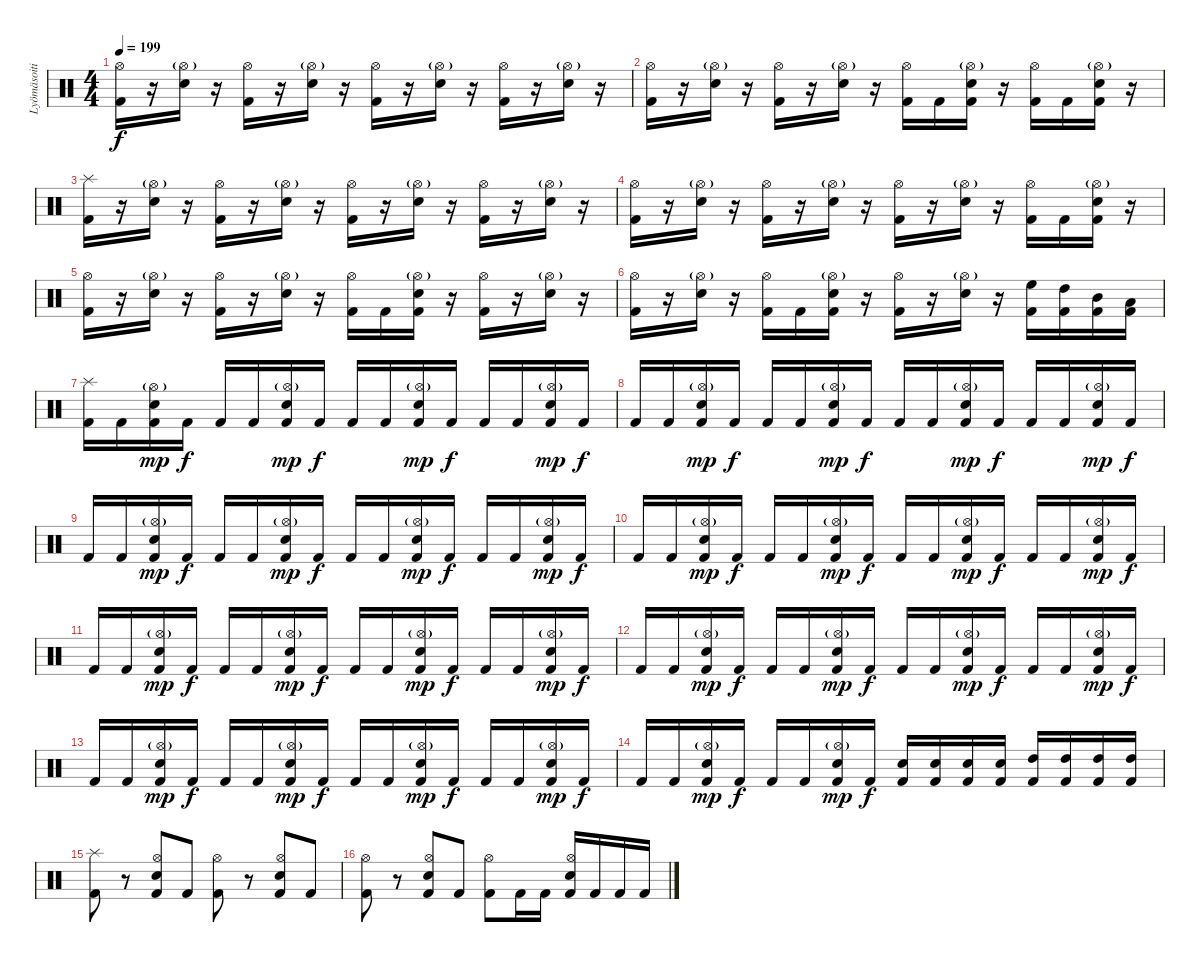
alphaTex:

\track ("Lyömäsoitin" "Lyömäsoiti") {instrument percussion}
\staff {score}
\articulation defaults
\ts (4 4)
\tempo 199
\clef neutral
\ks c
("Kick (hit) 2" "Hi-Hat (open)").16{dy f} r.16 ("Hi-Hat (open)"{g} "Snare (hit) 2").16 r.16 ("Kick (hit) 2" "Hi-Hat (open)").16 r.16 ("Hi-Hat (open)"{g} "Snare (hit) 2").16 r.16 ("Kick (hit) 2" "Hi-Hat (open)").16 r.16 ("Hi-Hat (open)"{g} "Snare (hit) 2").16 r.16 ("Kick (hit) 2" "Hi-Hat (open)").16 r.16 ("Hi-Hat (open)"{g} "Snare (hit) 2").16 r.16 |
("Kick (hit) 2" "Hi-Hat (open)").16 r.16 ("Hi-Hat (open)"{g} "Snare (hit) 2").16 r.16 ("Kick (hit) 2" "Hi-Hat (open)").16 r.16 ("Hi-Hat (open)"{g} "Snare (hit) 2").16 r.16 ("Kick (hit) 2" "Hi-Hat (open)").16 "Kick (hit) 2".16 ("Kick (hit) 2" "Hi-Hat (open)"{g} "Snare (hit) 2").16 r.16 ("Kick (hit) 2" "Hi-Hat (open)").16 "Kick (hit) 2".16 ("Kick (hit) 2" "Hi-Hat (open)"{g} "Snare (hit) 2").16 r.16 |
("Kick (hit) 2" "Splash (hit)").16 r.16 ("Hi-Hat (open)"{g} "Snare (hit) 2").16 r.16 ("Kick (hit) 2" "Hi-Hat (open)").16 r.16 ("Hi-Hat (open)"{g} "Snare (hit) 2").16 r.16 ("Kick (hit) 2" "Hi-Hat (open)").16 r.16 ("Hi-Hat (open)"{g} "Snare (hit) 2").16 r.16 ("Kick (hit) 2" "Hi-Hat (open)").16 r.16 ("Hi-Hat (open)"{g} "Snare (hit) 2").16 r.16 |
("Kick (hit) 2" "Hi-Hat (open)").16 r.16 ("Hi-Hat (open)"{g} "Snare (hit) 2").16 r.16 ("Kick (hit) 2" "Hi-Hat (open)").16 r.16 ("Hi-Hat (open)"{g} "Snare (hit) 2").16 r.16 ("Kick (hit) 2" "Hi-Hat (open)").16 r.16 ("Hi-Hat (open)"{g} "Snare (hit) 2").16 r.16 ("Kick (hit) 2" "Hi-Hat (open)").16 "Kick (hit) 2".16 ("Kick (hit) 2" "Hi-Hat (open)"{g} "Snare (hit) 2").16 r.16 |
("Kick (hit) 2" "Hi-Hat (open)").16 r.16 ("Hi-Hat (open)"{g} "Snare (hit) 2").16 r.16 ("Kick (hit) 2" "Hi-Hat (open)").16 r.16 ("Hi-Hat (open)"{g} "Snare (hit) 2").16 r.16 ("Kick (hit) 2" "Hi-Hat (open)").16 "Kick (hit) 2".16 ("Kick (hit) 2" "Hi-Hat (open)"{g} "Snare (hit) 2").16 r.16 ("Kick (hit) 2" "Hi-Hat (open)").16 r.16 ("Hi-Hat (open)"{g} "Snare (hit) 2").16 r.16 |
("Kick (hit) 2" "Hi-Hat (open)").16 r.16 ("Hi-Hat (open)"{g} "Snare (hit) 2").16 r.16 ("Kick (hit) 2" "Hi-Hat (open)").16 "Kick (hit) 2".16 ("Kick (hit) 2" "Hi-Hat (open)"{g} "Snare (hit) 2").16 r.16 ("Kick (hit) 2" "Hi-Hat (open)").16 r.16 ("Hi-Hat (open)"{g} "Snare (hit) 2").16 r.16 ("Kick (hit) 2" "High Floor Tom (hit)").16 ("Kick (hit) 2" "High Tom (hit)").16 ("Kick (hit) 2" "Mid Tom (hit)").16 ("Kick (hit) 2" "Low Tom (hit)").16 |
("Kick (hit) 2" "Splash (hit)").16 "Kick (hit) 2".16 ("Kick (hit) 2" "Snare (hit) 2" "Hi-Hat (open)"{g}).16{dy mp} "Kick (hit) 2".16{dy f} "Kick (hit) 2".16 "Kick (hit) 2".16 ("Kick (hit) 2" "Snare (hit) 2" "Hi-Hat (open)"{g}).16{dy mp} "Kick (hit) 2".16{dy f} "Kick (hit) 2".16 "Kick (hit) 2".16 ("Kick (hit) 2" "Snare (hit) 2" "Hi-Hat (open)"{g}).16{dy mp} "Kick (hit) 2".16{dy f} "Kick (hit) 2".16 "Kick (hit) 2".16 ("Kick (hit) 2" "Snare (hit) 2" "Hi-Hat (open)"{g}).16{dy mp} "Kick (hit) 2".16{dy f} |
"Kick (hit) 2".16 "Kick (hit) 2".16 ("Kick (hit) 2" "Snare (hit) 2" "Hi-Hat (open)"{g}).16{dy mp} "Kick (hit) 2".16{dy f} "Kick (hit) 2".16 "Kick (hit) 2".16 ("Kick (hit) 2" "Snare (hit) 2" "Hi-Hat (open)"{g}).16{dy mp} "Kick (hit) 2".16{dy f} "Kick (hit) 2".16 "Kick (hit) 2".16 ("Kick (hit) 2" "Snare (hit) 2" "Hi-Hat (open)"{g}).16{dy mp} "Kick (hit) 2".16{dy f} "Kick (hit) 2".16 "Kick (hit) 2".16 ("Kick (hit) 2" "Snare (hit) 2" "Hi-Hat (open)"{g}).16{dy mp} "Kick (hit) 2".16{dy f} |
"Kick (hit) 2".16 "Kick (hit) 2".16 ("Kick (hit) 2" "Snare (hit) 2" "Hi-Hat (open)"{g}).16{dy mp} "Kick (hit) 2".16{dy f} "Kick (hit) 2".16 "Kick (hit) 2".16 ("Kick (hit) 2" "Snare (hit) 2" "Hi-Hat (open)"{g}).16{dy mp} "Kick (hit) 2".16{dy f} "Kick (hit) 2".16 "Kick (hit) 2".16 ("Kick (hit) 2" "Snare (hit) 2" "Hi-Hat (open)"{g}).16{dy mp} "Kick (hit) 2".16{dy f} "Kick (hit) 2".16 "Kick (hit) 2".16 ("Kick (hit) 2" "Snare (hit) 2" "Hi-Hat (open)"{g}).16{dy mp} "Kick (hit) 2".16{dy f} |
"Kick (hit) 2".16 "Kick (hit) 2".16 ("Kick (hit) 2" "Snare (hit) 2" "Hi-Hat (open)"{g}).16{dy mp} "Kick (hit) 2".16{dy f} "Kick (hit) 2".16 "Kick (hit) 2".16 ("Kick (hit) 2" "Snare (hit) 2" "Hi-Hat (open)"{g}).16{dy mp} "Kick (hit) 2".16{dy f} "Kick (hit) 2".16 "Kick (hit) 2".16 ("Kick (hit) 2" "Snare (hit) 2" "Hi-Hat (open)"{g}).16{dy mp} "Kick (hit) 2".16{dy f} "Kick (hit) 2".16 "Kick (hit) 2".16 ("Kick (hit) 2" "Snare (hit) 2" "Hi-Hat (open)"{g}).16{dy mp} "Kick (hit) 2".16{dy f} |
"Kick (hit) 2".16 "Kick (hit) 2".16 ("Kick (hit) 2" "Snare (hit) 2" "Hi-Hat (open)"{g}).16{dy mp} "Kick (hit) 2".16{dy f} "Kick (hit) 2".16 "Kick (hit) 2".16 ("Kick (hit) 2" "Snare (hit) 2" "Hi-Hat (open)"{g}).16{dy mp} "Kick (hit) 2".16{dy f} "Kick (hit) 2".16 "Kick (hit) 2".16 ("Kick (hit) 2" "Snare (hit) 2" "Hi-Hat (open)"{g}).16{dy mp} "Kick (hit) 2".16{dy f} "Kick (hit) 2".16 "Kick (hit) 2".16 ("Kick (hit) 2" "Snare (hit) 2" "Hi-Hat (open)"{g}).16{dy mp} "Kick (hit) 2".16{dy f} |
"Kick (hit) 2".16 "Kick (hit) 2".16 ("Kick (hit) 2" "Snare (hit) 2" "Hi-Hat (open)"{g}).16{dy mp} "Kick (hit) 2".16{dy f} "Kick (hit) 2".16 "Kick (hit) 2".16 ("Kick (hit) 2" "Snare (hit) 2" "Hi-Hat (open)"{g}).16{dy mp} "Kick (hit) 2".16{dy f} "Kick (hit) 2".16 "Kick (hit) 2".16 ("Kick (hit) 2" "Snare (hit) 2" "Hi-Hat (open)"{g}).16{dy mp} "Kick (hit) 2".16{dy f} "Kick (hit) 2".16 "Kick (hit) 2".16 ("Kick (hit) 2" "Snare (hit) 2" "Hi-Hat (open)"{g}).16{dy mp} "Kick (hit) 2".16{dy f} |
"Kick (hit) 2".16 "Kick (hit) 2".16 ("Kick (hit) 2" "Snare (hit) 2" "Hi-Hat (open)"{g}).16{dy mp} "Kick (hit) 2".16{dy f} "Kick (hit) 2".16 "Kick (hit) 2".16 ("Kick (hit) 2" "Snare (hit) 2" "Hi-Hat (open)"{g}).16{dy mp} "Kick (hit) 2".16{dy f} "Kick (hit) 2".16 "Kick (hit) 2".16 ("Kick (hit) 2" "Snare (hit) 2" "Hi-Hat (open)"{g}).16{dy mp} "Kick (hit) 2".16{dy f} "Kick (hit) 2".16 "Kick (hit) 2".16 ("Kick (hit) 2" "Snare (hit) 2" "Hi-Hat (open)"{g}).16{dy mp} "Kick (hit) 2".16{dy f} |
"Kick (hit) 2".16 "Kick (hit) 2".16 ("Kick (hit) 2" "Snare (hit) 2" "Hi-Hat (open)"{g}).16{dy mp} "Kick (hit) 2".16{dy f} "Kick (hit) 2".16 "Kick (hit) 2".16 ("Kick (hit) 2" "Snare (hit) 2" "Hi-Hat (open)"{g}).16{dy mp} "Kick (hit) 2".16{dy f} ("Kick (hit) 2" "Snare (hit) 2").16 ("Kick (hit) 2" "Snare (hit) 2").16 ("Kick (hit) 2" "Snare (hit) 2").16 ("Kick (hit) 2" "Snare (hit) 2").16 ("Kick (hit) 2" "High Tom (hit)").16 ("Kick (hit) 2" "High Tom (hit)").16 ("Kick (hit) 2" "High Tom (hit)").16 ("Kick (hit) 2" "High Tom (hit)").16 |
("Kick (hit) 2" "Splash (hit)").8 r.8 ("Kick (hit) 2" "Hi-Hat (open)" "Snare (hit) 2").8 "Kick (hit) 2".8 ("Kick (hit) 2" "Hi-Hat (open)").8 r.8 ("Kick (hit) 2" "Hi-Hat (open)" "Snare (hit) 2").8 "Kick (hit) 2".8 |
("Kick (hit) 2" "Hi-Hat (open)").8 r.8 ("Kick (hit) 2" "Hi-Hat (open)" "Snare (hit) 2").8 "Kick (hit) 2".8 ("Kick (hit) 2" "Hi-Hat (open)").8 "Kick (hit) 2".16 "Kick (hit) 2".16 ("Kick (hit) 2" "Hi-Hat (open)" "Snare (hit) 2").16 "Kick (hit) 2".16 "Kick (hit) 2".16 "Kick (hit) 2".16
